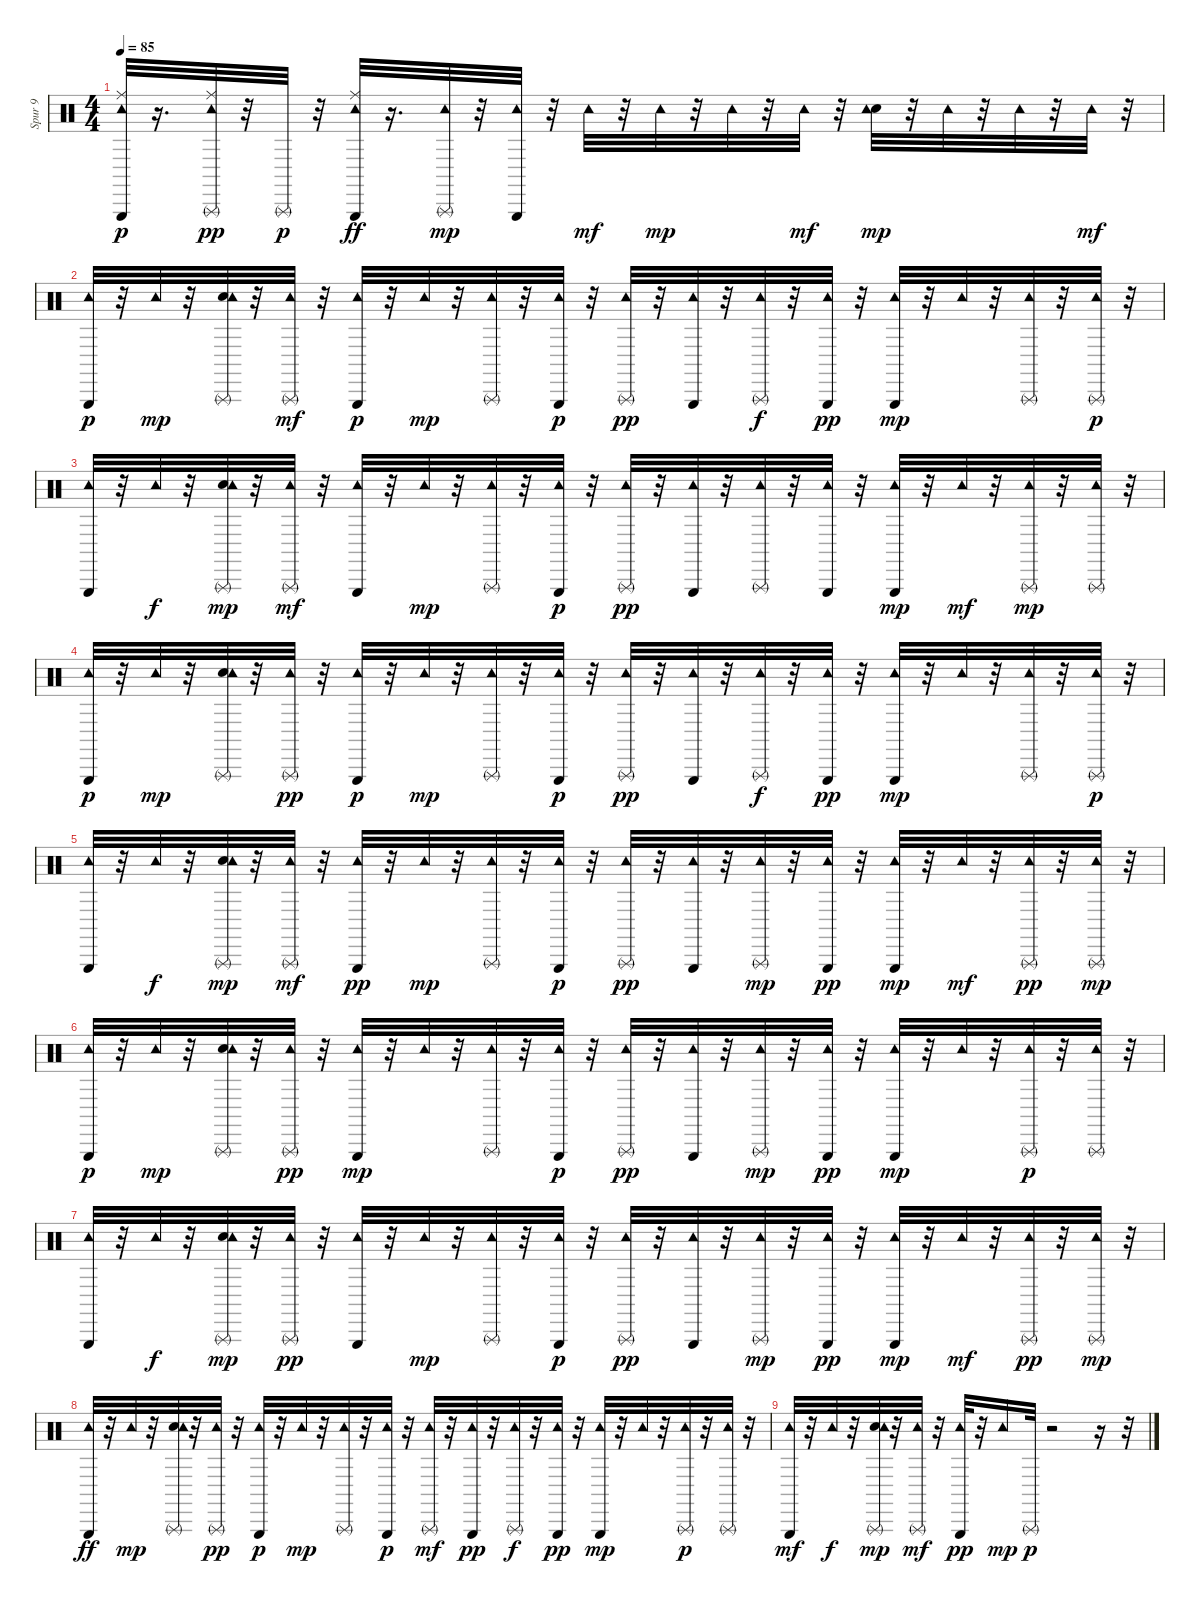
\track ("Spur 9" "Spur 9") {instrument percussion}
\staff {score}
\articulation defaults
\ts (4 4)
\tempo 85
\clef neutral
\ks c
("Tambourine (hit)" "Ride (middle)" "Triangle (hit)").32{dy p} r.16{d} ("Triangle (rnute)" "Tambourine (hit)" "Ride (middle)").32{dy pp} r.32 "Triangle (rnute)".32{dy p} r.32 ("Ride (middle)" "Triangle (hit)" "Tambourine (hit)").32{dy ff} r.16{d} ("Triangle (rnute)" "Tambourine (hit)").32{dy mp} r.32 ("Tambourine (hit)" "Triangle (hit)").32 r.32 "Tambourine (hit)".32{dy mf} r.32 "Tambourine (hit)".32{dy mp} r.32 "Tambourine (hit)".32 r.32 "Tambourine (hit)".32{dy mf} r.32 ("Snare (hit)" "Tambourine (hit)").32{dy mp} r.32 "Tambourine (hit)".32 r.32 "Tambourine (hit)".32 r.32 "Tambourine (hit)".32{dy mf} r.32 |
("Tambourine (hit)" "Triangle (hit)").32{dy p} r.32 "Tambourine (hit)".32{dy mp} r.32 ("Triangle (rnute)" "Snare (hit)" "Tambourine (hit)").32 r.32 ("Triangle (rnute)" "Tambourine (hit)").32{dy mf} r.32 ("Tambourine (hit)" "Triangle (hit)").32{dy p} r.32 "Tambourine (hit)".32{dy mp} r.32 ("Triangle (rnute)" "Tambourine (hit)").32 r.32 ("Tambourine (hit)" "Triangle (hit)").32{dy p} r.32 ("Tambourine (hit)" "Triangle (rnute)").32{dy pp} r.32 ("Tambourine (hit)" "Triangle (hit)").32 r.32 ("Tambourine (hit)" "Triangle (rnute)").32{dy f} r.32 ("Tambourine (hit)" "Triangle (hit)").32{dy pp} r.32 ("Triangle (hit)" "Tambourine (hit)").32{dy mp} r.32 "Tambourine (hit)".32 r.32 ("Triangle (rnute)" "Tambourine (hit)").32 r.32 ("Tambourine (hit)" "Triangle (rnute)").32{dy p} r.32 |
("Tambourine (hit)" "Triangle (hit)").32 r.32 "Tambourine (hit)".32{dy f} r.32 ("Snare (hit)" "Triangle (rnute)" "Tambourine (hit)").32{dy mp} r.32 ("Triangle (rnute)" "Tambourine (hit)").32{dy mf} r.32 ("Triangle (hit)" "Tambourine (hit)").32 r.32 "Tambourine (hit)".32{dy mp} r.32 ("Triangle (rnute)" "Tambourine (hit)").32 r.32 ("Tambourine (hit)" "Triangle (hit)").32{dy p} r.32 ("Tambourine (hit)" "Triangle (rnute)").32{dy pp} r.32 ("Tambourine (hit)" "Triangle (hit)").32 r.32 ("Tambourine (hit)" "Triangle (rnute)").32 r.32 ("Tambourine (hit)" "Triangle (hit)").32 r.32 ("Triangle (hit)" "Tambourine (hit)").32{dy mp} r.32 "Tambourine (hit)".32{dy mf} r.32 ("Triangle (rnute)" "Tambourine (hit)").32{dy mp} r.32 ("Tambourine (hit)" "Triangle (rnute)").32 r.32 |
("Tambourine (hit)" "Triangle (hit)").32{dy p} r.32 "Tambourine (hit)".32{dy mp} r.32 ("Snare (hit)" "Triangle (rnute)" "Tambourine (hit)").32 r.32 ("Tambourine (hit)" "Triangle (rnute)").32{dy pp} r.32 ("Tambourine (hit)" "Triangle (hit)").32{dy p} r.32 "Tambourine (hit)".32{dy mp} r.32 ("Triangle (rnute)" "Tambourine (hit)").32 r.32 ("Tambourine (hit)" "Triangle (hit)").32{dy p} r.32 ("Tambourine (hit)" "Triangle (rnute)").32{dy pp} r.32 ("Tambourine (hit)" "Triangle (hit)").32 r.32 ("Tambourine (hit)" "Triangle (rnute)").32{dy f} r.32 ("Tambourine (hit)" "Triangle (hit)").32{dy pp} r.32 ("Triangle (hit)" "Tambourine (hit)").32{dy mp} r.32 "Tambourine (hit)".32 r.32 ("Triangle (rnute)" "Tambourine (hit)").32 r.32 ("Tambourine (hit)" "Triangle (rnute)").32{dy p} r.32 |
("Tambourine (hit)" "Triangle (hit)").32 r.32 "Tambourine (hit)".32{dy f} r.32 ("Triangle (rnute)" "Snare (hit)" "Tambourine (hit)").32{dy mp} r.32 ("Triangle (rnute)" "Tambourine (hit)").32{dy mf} r.32 ("Tambourine (hit)" "Triangle (hit)").32{dy pp} r.32 "Tambourine (hit)".32{dy mp} r.32 ("Triangle (rnute)" "Tambourine (hit)").32 r.32 ("Tambourine (hit)" "Triangle (hit)").32{dy p} r.32 ("Tambourine (hit)" "Triangle (rnute)").32{dy pp} r.32 ("Tambourine (hit)" "Triangle (hit)").32 r.32 ("Triangle (rnute)" "Tambourine (hit)").32{dy mp} r.32 ("Tambourine (hit)" "Triangle (hit)").32{dy pp} r.32 ("Triangle (hit)" "Tambourine (hit)").32{dy mp} r.32 "Tambourine (hit)".32{dy mf} r.32 ("Tambourine (hit)" "Triangle (rnute)").32{dy pp} r.32 ("Tambourine (hit)" "Triangle (rnute)").32{dy mp} r.32 |
("Tambourine (hit)" "Triangle (hit)").32{dy p} r.32 "Tambourine (hit)".32{dy mp} r.32 ("Triangle (rnute)" "Snare (hit)" "Tambourine (hit)").32 r.32 ("Tambourine (hit)" "Triangle (rnute)").32{dy pp} r.32 ("Triangle (hit)" "Tambourine (hit)").32{dy mp} r.32 "Tambourine (hit)".32 r.32 ("Triangle (rnute)" "Tambourine (hit)").32 r.32 ("Tambourine (hit)" "Triangle (hit)").32{dy p} r.32 ("Tambourine (hit)" "Triangle (rnute)").32{dy pp} r.32 ("Tambourine (hit)" "Triangle (hit)").32 r.32 ("Triangle (rnute)" "Tambourine (hit)").32{dy mp} r.32 ("Tambourine (hit)" "Triangle (hit)").32{dy pp} r.32 ("Triangle (hit)" "Tambourine (hit)").32{dy mp} r.32 "Tambourine (hit)".32 r.32 ("Tambourine (hit)" "Triangle (rnute)").32{dy p} r.32 ("Tambourine (hit)" "Triangle (rnute)").32 r.32 |
("Tambourine (hit)" "Triangle (hit)").32 r.32 "Tambourine (hit)".32{dy f} r.32 ("Triangle (rnute)" "Snare (hit)" "Tambourine (hit)").32{dy mp} r.32 ("Tambourine (hit)" "Triangle (rnute)").32{dy pp} r.32 ("Tambourine (hit)" "Triangle (hit)").32 r.32 "Tambourine (hit)".32{dy mp} r.32 ("Triangle (rnute)" "Tambourine (hit)").32 r.32 ("Tambourine (hit)" "Triangle (hit)").32{dy p} r.32 ("Tambourine (hit)" "Triangle (rnute)").32{dy pp} r.32 ("Tambourine (hit)" "Triangle (hit)").32 r.32 ("Triangle (rnute)" "Tambourine (hit)").32{dy mp} r.32 ("Tambourine (hit)" "Triangle (hit)").32{dy pp} r.32 ("Triangle (hit)" "Tambourine (hit)").32{dy mp} r.32 "Tambourine (hit)".32{dy mf} r.32 ("Tambourine (hit)" "Triangle (rnute)").32{dy pp} r.32 ("Tambourine (hit)" "Triangle (rnute)").32{dy mp} r.32 |
("Triangle (hit)" "Tambourine (hit)").32{dy ff} r.32 "Tambourine (hit)".32{dy mp} r.32 ("Snare (hit)" "Triangle (rnute)" "Tambourine (hit)").32 r.32 ("Tambourine (hit)" "Triangle (rnute)").32{dy pp} r.32 ("Tambourine (hit)" "Triangle (hit)").32{dy p} r.32 "Tambourine (hit)".32{dy mp} r.32 ("Triangle (rnute)" "Tambourine (hit)").32 r.32 ("Tambourine (hit)" "Triangle (hit)").32{dy p} r.32 ("Triangle (rnute)" "Tambourine (hit)").32{dy mf} r.32 ("Tambourine (hit)" "Triangle (hit)").32{dy pp} r.32 ("Tambourine (hit)" "Triangle (rnute)").32{dy f} r.32 ("Tambourine (hit)" "Triangle (hit)").32{dy pp} r.32 ("Triangle (hit)" "Tambourine (hit)").32{dy mp} r.32 "Tambourine (hit)".32 r.32 ("Tambourine (hit)" "Triangle (rnute)").32{dy p} r.32 ("Tambourine (hit)" "Triangle (rnute)").32 r.32 |
("Triangle (hit)" "Tambourine (hit)").32{dy mf} r.32 "Tambourine (hit)".32{dy f} r.32 ("Snare (hit)" "Triangle (rnute)" "Tambourine (hit)").32{dy mp} r.32 ("Triangle (rnute)" "Tambourine (hit)").32{dy mf} r.32 ("Tambourine (hit)" "Triangle (hit)").32{dy pp} r.32 "Tambourine (hit)".16{dy mp} "Triangle (rnute)".32{dy p} r.2 r.16 r.32
